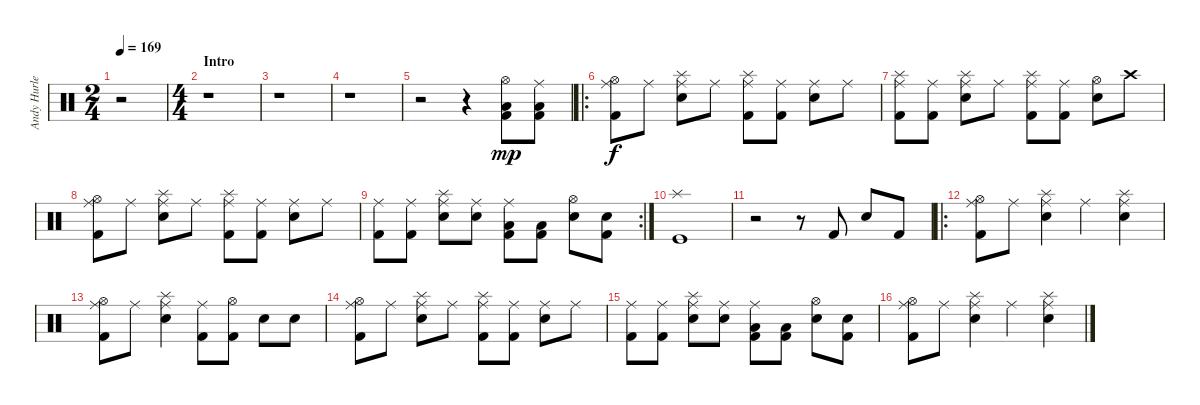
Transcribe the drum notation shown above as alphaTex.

\track ("Andy Hurley" "Andy Hurle") {instrument percussion}
\staff {score}
\articulation defaults
\ts (2 4)
\tempo 169
\clef neutral
\ks c
r.2{dy mp} |
\ts (4 4)
\section ("" "Intro")
r.1 |
r.1 |
r.1 |
r.2 r.4 ("Hi-Hat (open)" "Low Floor Tom (hit)" "Kick (hit) 2").8 ("Ride (middle)" "Low Floor Tom (hit)" "Kick (hit) 2").8 |
\ro
("Hi-Hat (open)" "Ride (middle)" "Kick (hit) 2").8{dy f} "Ride (middle)".8 ("Ride (middle)" "Splash (hit)" "Electric Snare (hit)").8 "Ride (middle)".8 ("Ride (middle)" "Splash (hit)" "Kick (hit) 2").8 ("Ride (middle)" "Kick (hit) 2").8 ("Ride (middle)" "Electric Snare (hit)").8 "Ride (middle)".8 |
("Ride (middle)" "Splash (hit)" "Kick (hit) 2").8 ("Ride (middle)" "Kick (hit) 2").8 ("Ride (middle)" "Splash (hit)" "Electric Snare (hit)").8 "Ride (middle)".8 ("Ride (middle)" "Splash (hit)" "Kick (hit) 2").8 ("Ride (middle)" "Kick (hit) 2").8 ("Hi-Hat (open)" "Electric Snare (hit)").8 "Crash high (hit)".8 |
("Hi-Hat (open)" "Ride (middle)" "Kick (hit) 2").8 "Ride (middle)".8 ("Ride (middle)" "Splash (hit)" "Electric Snare (hit)").8 "Ride (middle)".8 ("Ride (middle)" "Splash (hit)" "Kick (hit) 2").8 ("Ride (middle)" "Kick (hit) 2").8 ("Ride (middle)" "Electric Snare (hit)").8 "Ride (middle)".8 |
\rc 2
("Ride (middle)" "Kick (hit) 2").8 ("Ride (middle)" "Kick (hit) 2").8 ("Ride (middle)" "Splash (hit)" "Electric Snare (hit)").8 ("Ride (middle)" "Electric Snare (hit)").8 ("Ride (middle)" "Kick (hit) 2" "Low Floor Tom (hit)").8 ("Kick (hit) 2" "Low Floor Tom (hit)").8 ("Hi-Hat (open)" "Snare (hit) 2").8 ("Electric Snare (hit)" "Kick (hit) 2").8 |
("Kick (hit)" "Splash (hit)").1 |
r.2 r.8 "Kick (hit) 2".8 "Electric Snare (hit)".8 "Kick (hit) 2".8 |
\ro
("Hi-Hat (open)" "Ride (middle)" "Kick (hit) 2").8 "Ride (middle)".8 ("Ride (middle)" "Splash (hit)" "Electric Snare (hit)").4 "Ride (middle)".4 ("Ride (middle)" "Splash (hit)" "Electric Snare (hit)").4 |
("Hi-Hat (open)" "Ride (middle)" "Kick (hit) 2").8 "Ride (middle)".8 ("Ride (middle)" "Splash (hit)" "Electric Snare (hit)").4 ("Ride (middle)" "Kick (hit) 2").8 ("Hi-Hat (open)" "Kick (hit) 2").8 "Electric Snare (hit)".8 "Snare (hit) 2".8 |
("Hi-Hat (open)" "Ride (middle)" "Kick (hit) 2").8 "Ride (middle)".8 ("Ride (middle)" "Splash (hit)" "Electric Snare (hit)").8 "Ride (middle)".8 ("Ride (middle)" "Splash (hit)" "Kick (hit) 2").8 ("Ride (middle)" "Kick (hit) 2").8 ("Ride (middle)" "Electric Snare (hit)").8 "Ride (middle)".8 |
("Ride (middle)" "Kick (hit) 2").8 ("Ride (middle)" "Kick (hit) 2").8 ("Ride (middle)" "Splash (hit)" "Electric Snare (hit)").8 ("Ride (middle)" "Electric Snare (hit)").8 ("Ride (middle)" "Kick (hit) 2" "Low Floor Tom (hit)").8 ("Kick (hit) 2" "Low Floor Tom (hit)").8 ("Hi-Hat (open)" "Snare (hit) 2").8 ("Electric Snare (hit)" "Kick (hit) 2").8 |
("Hi-Hat (open)" "Ride (middle)" "Kick (hit) 2").8 "Ride (middle)".8 ("Ride (middle)" "Splash (hit)" "Electric Snare (hit)").4 "Ride (middle)".4 ("Ride (middle)" "Splash (hit)" "Electric Snare (hit)").4
